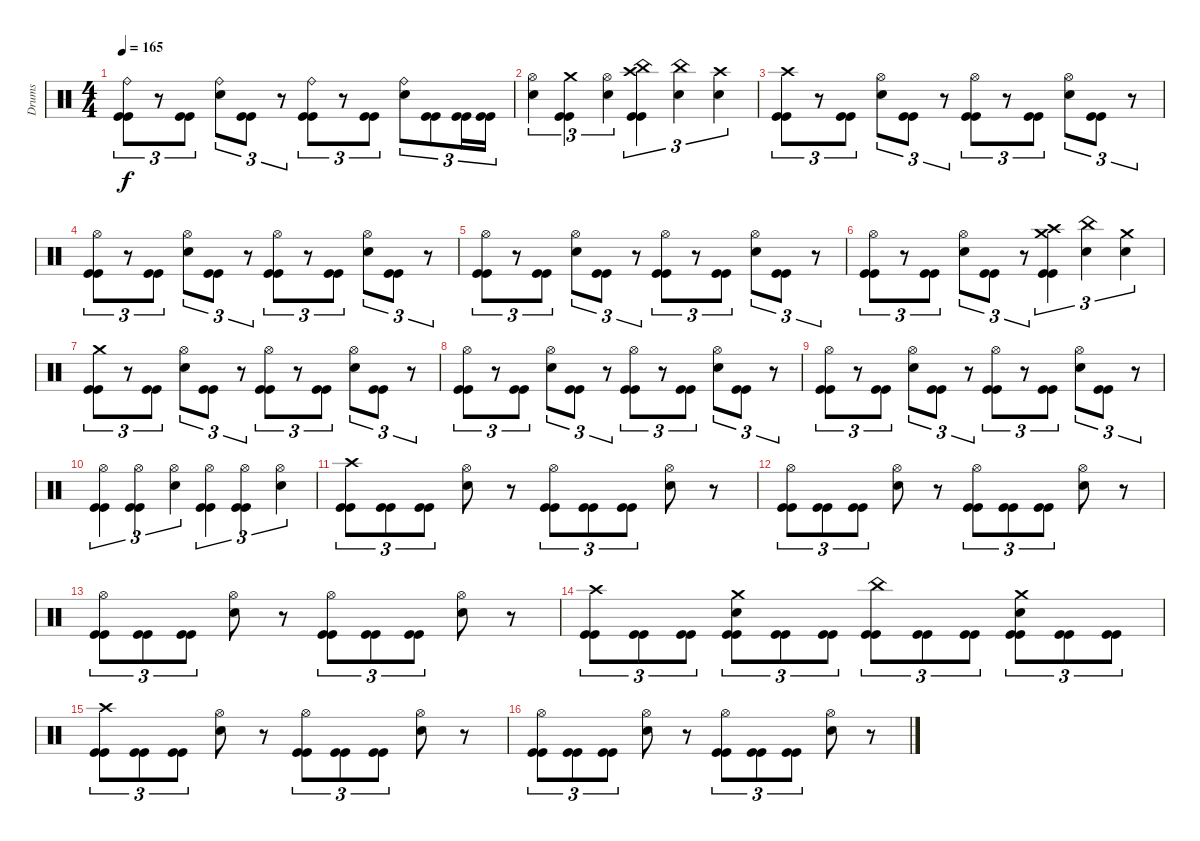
\track ("Drums" "Drums") {instrument percussion}
\staff {score}
\articulation defaults
\ts (4 4)
\tempo 165
\clef neutral
\ks c
("Kick (hit)" "Kick (hit)" "Ride (bell)").8{tu (3 2) dy f} r.8{tu (3 2)} ("Kick (hit)" "Kick (hit)").8{tu (3 2)} ("Snare (hit) 2" "Ride (bell)").8{tu (3 2)} ("Kick (hit)" "Kick (hit)").8{tu (3 2)} r.8{tu (3 2)} ("Kick (hit)" "Kick (hit)" "Ride (bell)").8{tu (3 2)} r.8{tu (3 2)} ("Kick (hit)" "Kick (hit)").8{tu (3 2)} ("Snare (hit) 2" "Ride (bell)").8{tu (3 2)} ("Kick (hit)" "Kick (hit)").8{tu (3 2)} ("Kick (hit)" "Kick (hit)").16{tu (3 2)} ("Kick (hit)" "Kick (hit)").16{tu (3 2)} |
("Snare (hit) 2" "Hi-Hat (open)").4{tu (3 2)} ("Kick (hit)" "Kick (hit)" "Crash medium (hit)").4{tu (3 2)} ("Snare (hit) 2" "Hi-Hat (open)").4{tu (3 2)} ("Kick (hit)" "Kick (hit)" "China (hit)" "Crash high (hit)").4{tu (3 2)} ("Snare (hit) 2" "China (hit)").4{tu (3 2)} ("Snare (hit) 2" "Crash high (hit)").4{tu (3 2)} |
("Kick (hit)" "Kick (hit)" "Crash high (hit)").8{tu (3 2)} r.8{tu (3 2)} ("Kick (hit)" "Kick (hit)").8{tu (3 2)} ("Snare (hit) 2" "Hi-Hat (open)").8{tu (3 2)} ("Kick (hit)" "Kick (hit)").8{tu (3 2)} r.8{tu (3 2)} ("Kick (hit)" "Kick (hit)" "Hi-Hat (open)").8{tu (3 2)} r.8{tu (3 2)} ("Kick (hit)" "Kick (hit)").8{tu (3 2)} ("Snare (hit) 2" "Hi-Hat (open)").8{tu (3 2)} ("Kick (hit)" "Kick (hit)").8{tu (3 2)} r.8{tu (3 2)} |
("Kick (hit)" "Kick (hit)" "Hi-Hat (open)").8{tu (3 2)} r.8{tu (3 2)} ("Kick (hit)" "Kick (hit)").8{tu (3 2)} ("Snare (hit) 2" "Hi-Hat (open)").8{tu (3 2)} ("Kick (hit)" "Kick (hit)").8{tu (3 2)} r.8{tu (3 2)} ("Kick (hit)" "Kick (hit)" "Hi-Hat (open)").8{tu (3 2)} r.8{tu (3 2)} ("Kick (hit)" "Kick (hit)").8{tu (3 2)} ("Snare (hit) 2" "Hi-Hat (open)").8{tu (3 2)} ("Kick (hit)" "Kick (hit)").8{tu (3 2)} r.8{tu (3 2)} |
("Kick (hit)" "Kick (hit)" "Hi-Hat (open)").8{tu (3 2)} r.8{tu (3 2)} ("Kick (hit)" "Kick (hit)").8{tu (3 2)} ("Snare (hit) 2" "Hi-Hat (open)").8{tu (3 2)} ("Kick (hit)" "Kick (hit)").8{tu (3 2)} r.8{tu (3 2)} ("Kick (hit)" "Kick (hit)" "Hi-Hat (open)").8{tu (3 2)} r.8{tu (3 2)} ("Kick (hit)" "Kick (hit)").8{tu (3 2)} ("Snare (hit) 2" "Hi-Hat (open)").8{tu (3 2)} ("Kick (hit)" "Kick (hit)").8{tu (3 2)} r.8{tu (3 2)} |
("Kick (hit)" "Kick (hit)" "Hi-Hat (open)").8{tu (3 2)} r.8{tu (3 2)} ("Kick (hit)" "Kick (hit)").8{tu (3 2)} ("Snare (hit) 2" "Hi-Hat (open)").8{tu (3 2)} ("Kick (hit)" "Kick (hit)").8{tu (3 2)} r.8{tu (3 2)} ("Kick (hit)" "Kick (hit)" "Crash medium (hit)" "Crash high (hit)").4{tu (3 2)} ("Snare (hit) 2" "China (hit)").4{tu (3 2)} ("Snare (hit) 2" "Crash medium (hit)").4{tu (3 2)} |
("Kick (hit)" "Kick (hit)" "Crash medium (hit)").8{tu (3 2)} r.8{tu (3 2)} ("Kick (hit)" "Kick (hit)").8{tu (3 2)} ("Snare (hit) 2" "Hi-Hat (open)").8{tu (3 2)} ("Kick (hit)" "Kick (hit)").8{tu (3 2)} r.8{tu (3 2)} ("Kick (hit)" "Kick (hit)" "Hi-Hat (open)").8{tu (3 2)} r.8{tu (3 2)} ("Kick (hit)" "Kick (hit)").8{tu (3 2)} ("Snare (hit) 2" "Hi-Hat (open)").8{tu (3 2)} ("Kick (hit)" "Kick (hit)").8{tu (3 2)} r.8{tu (3 2)} |
("Kick (hit)" "Kick (hit)" "Hi-Hat (open)").8{tu (3 2)} r.8{tu (3 2)} ("Kick (hit)" "Kick (hit)").8{tu (3 2)} ("Snare (hit) 2" "Hi-Hat (open)").8{tu (3 2)} ("Kick (hit)" "Kick (hit)").8{tu (3 2)} r.8{tu (3 2)} ("Kick (hit)" "Kick (hit)" "Hi-Hat (open)").8{tu (3 2)} r.8{tu (3 2)} ("Kick (hit)" "Kick (hit)").8{tu (3 2)} ("Snare (hit) 2" "Hi-Hat (open)").8{tu (3 2)} ("Kick (hit)" "Kick (hit)").8{tu (3 2)} r.8{tu (3 2)} |
("Kick (hit)" "Kick (hit)" "Hi-Hat (open)").8{tu (3 2)} r.8{tu (3 2)} ("Kick (hit)" "Kick (hit)").8{tu (3 2)} ("Snare (hit) 2" "Hi-Hat (open)").8{tu (3 2)} ("Kick (hit)" "Kick (hit)").8{tu (3 2)} r.8{tu (3 2)} ("Kick (hit)" "Kick (hit)" "Hi-Hat (open)").8{tu (3 2)} r.8{tu (3 2)} ("Kick (hit)" "Kick (hit)").8{tu (3 2)} ("Snare (hit) 2" "Hi-Hat (open)").8{tu (3 2)} ("Kick (hit)" "Kick (hit)").8{tu (3 2)} r.8{tu (3 2)} |
("Kick (hit)" "Kick (hit)" "Hi-Hat (open)").4{tu (3 2)} ("Kick (hit)" "Kick (hit)" "Hi-Hat (open)").4{tu (3 2)} ("Snare (hit) 2" "Hi-Hat (open)").4{tu (3 2)} ("Kick (hit)" "Kick (hit)" "Hi-Hat (open)").4{tu (3 2)} ("Kick (hit)" "Kick (hit)" "Hi-Hat (open)").4{tu (3 2)} ("Snare (hit) 2" "Hi-Hat (open)").4{tu (3 2)} |
("Kick (hit)" "Kick (hit)" "Crash high (hit)").8{tu (3 2)} ("Kick (hit)" "Kick (hit)").8{tu (3 2)} ("Kick (hit)" "Kick (hit)").8{tu (3 2)} ("Snare (hit) 2" "Hi-Hat (open)").8 r.8 ("Kick (hit)" "Kick (hit)" "Hi-Hat (open)").8{tu (3 2)} ("Kick (hit)" "Kick (hit)").8{tu (3 2)} ("Kick (hit)" "Kick (hit)").8{tu (3 2)} ("Snare (hit) 2" "Hi-Hat (open)").8 r.8 |
("Kick (hit)" "Kick (hit)" "Hi-Hat (open)").8{tu (3 2)} ("Kick (hit)" "Kick (hit)").8{tu (3 2)} ("Kick (hit)" "Kick (hit)").8{tu (3 2)} ("Snare (hit) 2" "Hi-Hat (open)").8 r.8 ("Kick (hit)" "Kick (hit)" "Hi-Hat (open)").8{tu (3 2)} ("Kick (hit)" "Kick (hit)").8{tu (3 2)} ("Kick (hit)" "Kick (hit)").8{tu (3 2)} ("Snare (hit) 2" "Hi-Hat (open)").8 r.8 |
("Kick (hit)" "Kick (hit)" "Hi-Hat (open)").8{tu (3 2)} ("Kick (hit)" "Kick (hit)").8{tu (3 2)} ("Kick (hit)" "Kick (hit)").8{tu (3 2)} ("Snare (hit) 2" "Hi-Hat (open)").8 r.8 ("Kick (hit)" "Kick (hit)" "Hi-Hat (open)").8{tu (3 2)} ("Kick (hit)" "Kick (hit)").8{tu (3 2)} ("Kick (hit)" "Kick (hit)").8{tu (3 2)} ("Snare (hit) 2" "Hi-Hat (open)").8 r.8 |
("Kick (hit)" "Kick (hit)" "Crash high (hit)").8{tu (3 2)} ("Kick (hit)" "Kick (hit)").8{tu (3 2)} ("Kick (hit)" "Kick (hit)").8{tu (3 2)} ("Kick (hit)" "Kick (hit)" "Snare (hit) 2" "Crash medium (hit)").8{tu (3 2)} ("Kick (hit)" "Kick (hit)").8{tu (3 2)} ("Kick (hit)" "Kick (hit)").8{tu (3 2)} ("Kick (hit)" "Kick (hit)" "China (hit)").8{tu (3 2)} ("Kick (hit)" "Kick (hit)").8{tu (3 2)} ("Kick (hit)" "Kick (hit)").8{tu (3 2)} ("Kick (hit)" "Kick (hit)" "Snare (hit) 2" "Crash medium (hit)").8{tu (3 2)} ("Kick (hit)" "Kick (hit)").8{tu (3 2)} ("Kick (hit)" "Kick (hit)").8{tu (3 2)} |
("Kick (hit)" "Kick (hit)" "Crash high (hit)").8{tu (3 2)} ("Kick (hit)" "Kick (hit)").8{tu (3 2)} ("Kick (hit)" "Kick (hit)").8{tu (3 2)} ("Snare (hit) 2" "Hi-Hat (open)").8 r.8 ("Kick (hit)" "Kick (hit)" "Hi-Hat (open)").8{tu (3 2)} ("Kick (hit)" "Kick (hit)").8{tu (3 2)} ("Kick (hit)" "Kick (hit)").8{tu (3 2)} ("Snare (hit) 2" "Hi-Hat (open)").8 r.8 |
("Kick (hit)" "Kick (hit)" "Hi-Hat (open)").8{tu (3 2)} ("Kick (hit)" "Kick (hit)").8{tu (3 2)} ("Kick (hit)" "Kick (hit)").8{tu (3 2)} ("Snare (hit) 2" "Hi-Hat (open)").8 r.8 ("Kick (hit)" "Kick (hit)" "Hi-Hat (open)").8{tu (3 2)} ("Kick (hit)" "Kick (hit)").8{tu (3 2)} ("Kick (hit)" "Kick (hit)").8{tu (3 2)} ("Snare (hit) 2" "Hi-Hat (open)").8 r.8
